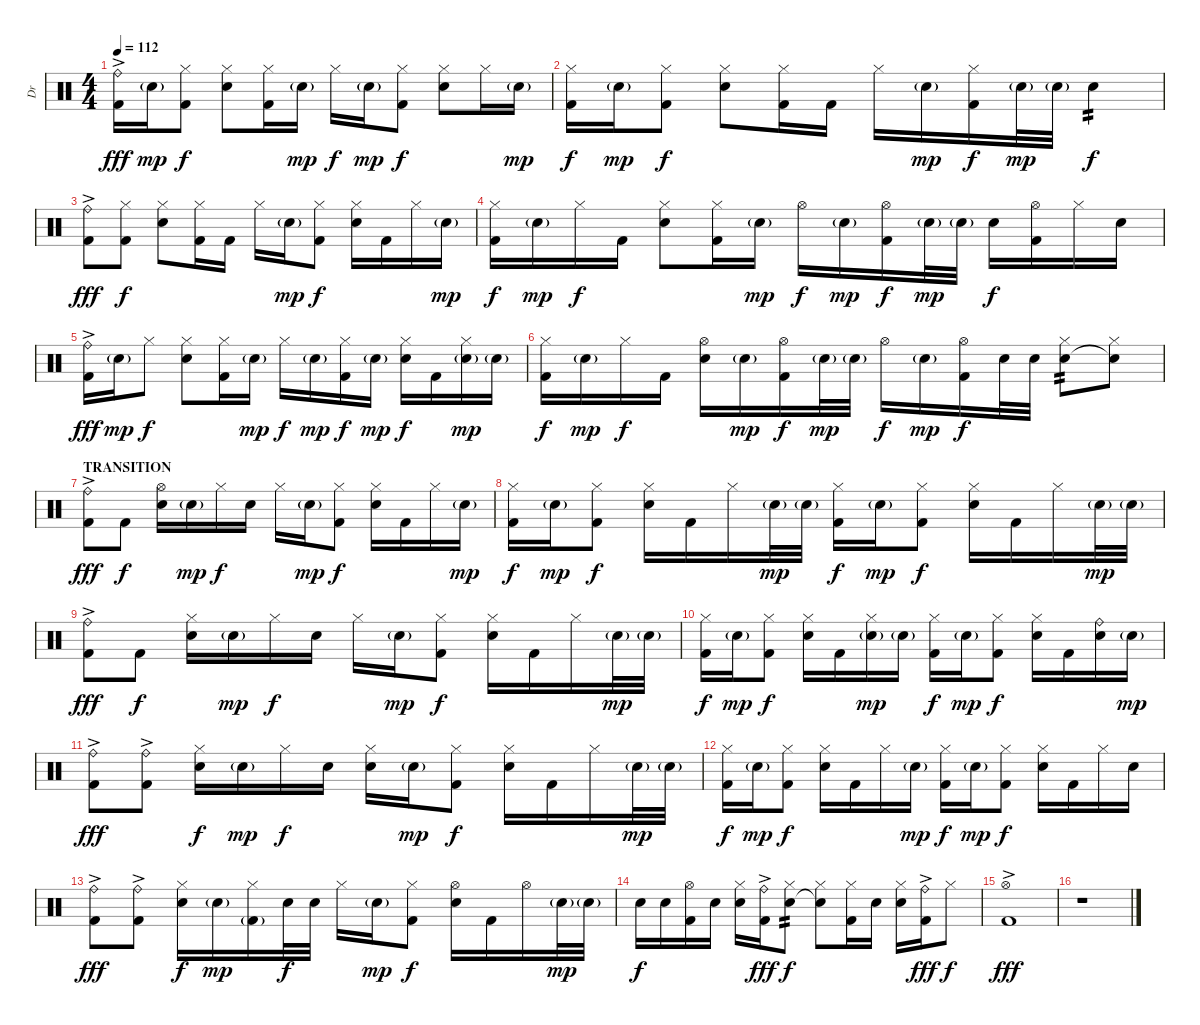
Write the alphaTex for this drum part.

\track ("Dr" "Dr") {instrument percussion}
\staff {score}
\articulation defaults
\ts (4 4)
\tempo 112
\clef neutral
\ks c
("Ride (bell)"{ac} "Kick (hit) 2"{ac}).16{dy fff} "Electric Snare (hit)"{g}.16{dy mp} ("Hi-Hat (closed)" "Kick (hit) 2").8{dy f} ("Hi-Hat (closed)" "Electric Snare (hit)").8 ("Hi-Hat (closed)" "Kick (hit) 2").16 "Electric Snare (hit)"{g}.16{dy mp} "Hi-Hat (closed)".16{dy f} "Electric Snare (hit)"{g}.16{dy mp} ("Hi-Hat (closed)" "Kick (hit) 2").8{dy f} ("Hi-Hat (closed)" "Electric Snare (hit)").8 "Hi-Hat (closed)".16 "Electric Snare (hit)"{g}.16{dy mp} |
("Hi-Hat (closed)" "Kick (hit) 2").16{dy f} "Electric Snare (hit)"{g}.16{dy mp} ("Hi-Hat (closed)" "Kick (hit) 2").8{dy f} ("Hi-Hat (closed)" "Electric Snare (hit)").8 ("Hi-Hat (closed)" "Kick (hit) 2").16 "Kick (hit) 2".16 "Hi-Hat (closed)".16 "Electric Snare (hit)"{g}.16{dy mp} ("Hi-Hat (closed)" "Kick (hit) 2").16{dy f} "Electric Snare (hit)"{g}.32{dy mp} "Electric Snare (hit)"{g}.32 "Electric Snare (hit)".4{tp 2 dy f} |
("Ride (bell)"{ac} "Kick (hit) 2"{ac}).8{dy fff} ("Hi-Hat (closed)" "Kick (hit) 2").8{dy f} ("Hi-Hat (closed)" "Electric Snare (hit)").8 ("Hi-Hat (closed)" "Kick (hit) 2").16 "Kick (hit) 2".16 "Hi-Hat (closed)".16 "Electric Snare (hit)"{g}.16{dy mp} ("Hi-Hat (closed)" "Kick (hit) 2").8{dy f} ("Hi-Hat (closed)" "Electric Snare (hit)").16 "Kick (hit) 2".16 "Hi-Hat (closed)".16 "Electric Snare (hit)"{g}.16{dy mp} |
("Hi-Hat (closed)" "Kick (hit) 2").16{dy f} "Electric Snare (hit)"{g}.16{dy mp} "Hi-Hat (closed)".16{dy f} "Kick (hit) 2".16 ("Hi-Hat (closed)" "Electric Snare (hit)").8 ("Hi-Hat (closed)" "Kick (hit) 2").16 "Electric Snare (hit)"{g}.16{dy mp} "Hi-Hat (open)".16{dy f} "Electric Snare (hit)"{g}.16{dy mp} ("Hi-Hat (open)" "Kick (hit) 2").16{dy f} "Electric Snare (hit)"{g}.32{dy mp} "Electric Snare (hit)"{g}.32 "Electric Snare (hit)".16{dy f} ("Hi-Hat (open)" "Kick (hit) 2").16 "Hi-Hat (closed)".16 "Electric Snare (hit)".16 |
("Ride (bell)"{ac} "Kick (hit) 2"{ac}).16{dy fff} "Electric Snare (hit)"{g}.16{dy mp} "Hi-Hat (closed)".8{dy f} ("Hi-Hat (closed)" "Electric Snare (hit)").8 ("Hi-Hat (closed)" "Kick (hit) 2").16 "Electric Snare (hit)"{g}.16{dy mp} "Hi-Hat (closed)".16{dy f} "Electric Snare (hit)"{g}.16{dy mp} ("Hi-Hat (closed)" "Kick (hit) 2").16{dy f} "Electric Snare (hit)"{g}.16{dy mp} ("Hi-Hat (closed)" "Electric Snare (hit)").16{dy f} "Kick (hit) 2".16 ("Hi-Hat (closed)" "Electric Snare (hit)"{g}).16{dy mp} "Electric Snare (hit)"{g}.16 |
("Hi-Hat (closed)" "Kick (hit) 2").16{dy f} "Electric Snare (hit)"{g}.16{dy mp} "Hi-Hat (closed)".16{dy f} "Kick (hit) 2".16 ("Hi-Hat (open)" "Electric Snare (hit)").16 "Electric Snare (hit)"{g}.16{dy mp} ("Hi-Hat (open)" "Kick (hit) 2").16{dy f} "Electric Snare (hit)"{g}.32{dy mp} "Electric Snare (hit)"{g}.32 "Hi-Hat (open)".16{dy f} "Electric Snare (hit)"{g}.16{dy mp} ("Hi-Hat (open)" "Kick (hit) 2").16{dy f} "Electric Snare (hit)".32 "Electric Snare (hit)".32 ("Hi-Hat (closed)" "Electric Snare (hit)").8{tp 2} ("Hi-Hat (closed)" "Snare (hit)"{t}).8 |
\section ("" "TRANSITION")
("Ride (bell)"{ac} "Kick (hit) 2"{ac}).8{dy fff} "Kick (hit) 2".8{dy f} ("Hi-Hat (open)" "Electric Snare (hit)").16 "Electric Snare (hit)"{g}.16{dy mp} "Hi-Hat (closed)".16{dy f} "Electric Snare (hit)".16 "Hi-Hat (closed)".16 "Electric Snare (hit)"{g}.16{dy mp} ("Hi-Hat (closed)" "Kick (hit) 2").8{dy f} ("Hi-Hat (closed)" "Electric Snare (hit)").16 "Kick (hit) 2".16 "Hi-Hat (closed)".16 "Electric Snare (hit)"{g}.16{dy mp} |
("Hi-Hat (closed)" "Kick (hit) 2").16{dy f} "Electric Snare (hit)"{g}.16{dy mp} ("Hi-Hat (closed)" "Kick (hit) 2").8{dy f} ("Hi-Hat (closed)" "Electric Snare (hit)").16 "Kick (hit) 2".16 "Hi-Hat (closed)".16 "Electric Snare (hit)"{g}.32{dy mp} "Electric Snare (hit)"{g}.32 ("Hi-Hat (closed)" "Kick (hit) 2").16{dy f} "Electric Snare (hit)"{g}.16{dy mp} ("Hi-Hat (closed)" "Kick (hit) 2").8{dy f} ("Hi-Hat (closed)" "Electric Snare (hit)").16 "Kick (hit) 2".16 "Hi-Hat (closed)".16 "Electric Snare (hit)"{g}.32{dy mp} "Electric Snare (hit)"{g}.32 |
("Ride (bell)"{ac} "Kick (hit) 2"{ac}).8{dy fff} "Kick (hit) 2".8{dy f} ("Hi-Hat (closed)" "Electric Snare (hit)").16 "Electric Snare (hit)"{g}.16{dy mp} "Hi-Hat (closed)".16{dy f} "Electric Snare (hit)".16 "Hi-Hat (closed)".16 "Electric Snare (hit)"{g}.16{dy mp} ("Hi-Hat (closed)" "Kick (hit) 2").8{dy f} ("Hi-Hat (closed)" "Electric Snare (hit)").16 "Kick (hit) 2".16 "Hi-Hat (closed)".16 "Electric Snare (hit)"{g}.32{dy mp} "Electric Snare (hit)"{g}.32 |
("Hi-Hat (closed)" "Kick (hit) 2").16{dy f} "Electric Snare (hit)"{g}.16{dy mp} ("Hi-Hat (closed)" "Kick (hit) 2").8{dy f} ("Hi-Hat (closed)" "Electric Snare (hit)").16 "Kick (hit) 2".16 ("Hi-Hat (closed)" "Electric Snare (hit)"{g}).16{dy mp} "Electric Snare (hit)"{g}.16 ("Hi-Hat (closed)" "Kick (hit) 2").16{dy f} "Electric Snare (hit)"{g}.16{dy mp} ("Hi-Hat (closed)" "Kick (hit) 2").8{dy f} ("Hi-Hat (closed)" "Electric Snare (hit)").16 "Kick (hit) 2".16 ("Ride (bell)" "Electric Snare (hit)").16 "Electric Snare (hit)"{g}.16{dy mp} |
("Ride (bell)"{ac} "Kick (hit) 2"{ac}).8{dy fff} ("Ride (bell)"{ac} "Kick (hit) 2"{ac}).8 ("Hi-Hat (closed)" "Electric Snare (hit)").16{dy f} "Electric Snare (hit)"{g}.16{dy mp} "Hi-Hat (closed)".16{dy f} "Electric Snare (hit)".16 ("Hi-Hat (closed)" "Electric Snare (hit)").16 "Electric Snare (hit)"{g}.16{dy mp} ("Hi-Hat (closed)" "Kick (hit) 2").8{dy f} ("Hi-Hat (closed)" "Electric Snare (hit)").16 "Kick (hit) 2".16 "Hi-Hat (closed)".16 "Electric Snare (hit)"{g}.32{dy mp} "Electric Snare (hit)"{g}.32 |
("Hi-Hat (closed)" "Kick (hit) 2").16{dy f} "Electric Snare (hit)"{g}.16{dy mp} ("Hi-Hat (closed)" "Kick (hit) 2").8{dy f} ("Hi-Hat (closed)" "Electric Snare (hit)").16 "Kick (hit) 2".16 "Hi-Hat (closed)".16 "Electric Snare (hit)"{g}.16{dy mp} ("Hi-Hat (closed)" "Kick (hit) 2").16{dy f} "Electric Snare (hit)"{g}.16{dy mp} ("Hi-Hat (closed)" "Kick (hit) 2").8{dy f} ("Hi-Hat (closed)" "Electric Snare (hit)").16 "Kick (hit) 2".16 "Hi-Hat (closed)".16 "Electric Snare (hit)".16 |
("Ride (bell)"{ac} "Kick (hit) 2"{ac}).8{dy fff} ("Ride (bell)"{ac} "Kick (hit) 2"{ac}).8 ("Hi-Hat (closed)" "Electric Snare (hit)").16{dy f} "Electric Snare (hit)"{g}.16{dy mp} ("Hi-Hat (closed)" "Kick (hit) 2"{g}).16 "Electric Snare (hit)".32{dy f} "Electric Snare (hit)".32 "Hi-Hat (closed)".16 "Electric Snare (hit)"{g}.16{dy mp} ("Hi-Hat (closed)" "Kick (hit) 2").8{dy f} ("Hi-Hat (open)" "Electric Snare (hit)").16 "Kick (hit) 2".16 "Hi-Hat (open)".16 "Electric Snare (hit)"{g}.32{dy mp} "Electric Snare (hit)"{g}.32 |
"Electric Snare (hit)".16{dy f} "Electric Snare (hit)".16 ("Hi-Hat (open)" "Kick (hit) 2").16 "Electric Snare (hit)".16 ("Hi-Hat (closed)" "Electric Snare (hit)").16 ("Ride (bell)"{ac} "Kick (hit) 2"{ac}).16{dy fff} ("Hi-Hat (closed)" "Electric Snare (hit)").8{tp 2 dy f} ("Hi-Hat (closed)" "Snare (hit)"{t}).8 ("Hi-Hat (closed)" "Kick (hit) 2").16 "Electric Snare (hit)".16 ("Hi-Hat (closed)" "Electric Snare (hit)").16 ("Ride (bell)"{ac} "Kick (hit) 2"{ac}).16{dy fff} "Hi-Hat (closed)".8{dy f} |
("Hi-Hat (open)"{ac} "Kick (hit) 2"{ac}).1{dy fff} |
r.1
